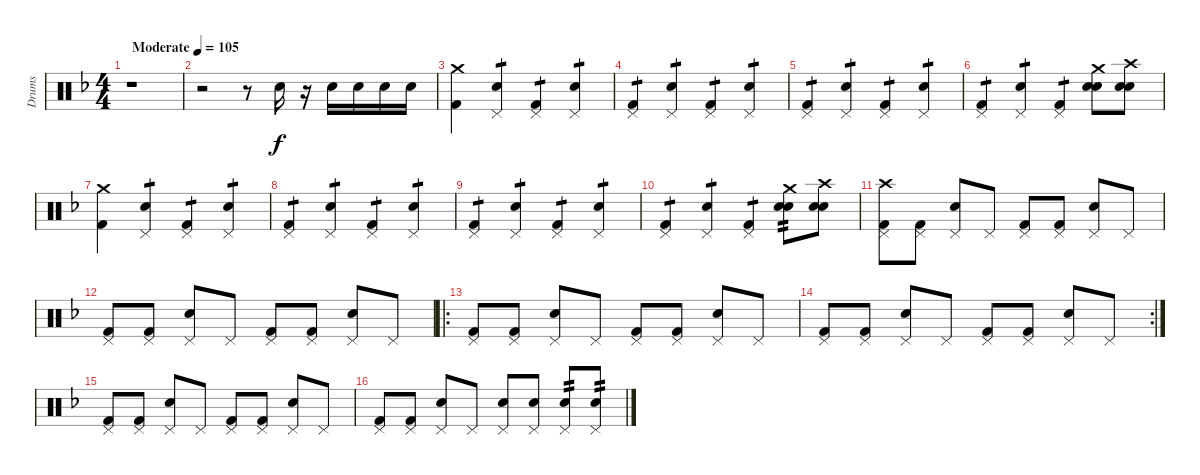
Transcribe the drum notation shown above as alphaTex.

\track ("Drums" "Drums") {instrument percussion}
\staff {score}
\articulation defaults
\ts (4 4)
\tempo (105 "Moderate")
\clef neutral
\ks f
r.1{dy f} |
r.2 r.8 "Snare (hit) 2".16 r.16 "Snare (hit) 2".16 "Snare (hit) 2".16 "Snare (hit) 2".16 "Snare (hit) 2".16 |
("Kick (hit) 2" "Crash medium (hit)").4 ("Snare (hit) 2" "Pedal Hi-Hat (hit)").4{tp 1} ("Kick (hit) 2" "Pedal Hi-Hat (hit)").4{tp 1} ("Snare (hit) 2" "Pedal Hi-Hat (hit)").4{tp 1} |
("Kick (hit) 2" "Pedal Hi-Hat (hit)").4{tp 1} ("Snare (hit) 2" "Pedal Hi-Hat (hit)").4{tp 1} ("Kick (hit) 2" "Pedal Hi-Hat (hit)").4{tp 1} ("Snare (hit) 2" "Pedal Hi-Hat (hit)").4{tp 1} |
("Kick (hit) 2" "Pedal Hi-Hat (hit)").4{tp 1} ("Snare (hit) 2" "Pedal Hi-Hat (hit)").4{tp 1} ("Kick (hit) 2" "Pedal Hi-Hat (hit)").4{tp 1} ("Snare (hit) 2" "Pedal Hi-Hat (hit)").4{tp 1} |
("Kick (hit) 2" "Pedal Hi-Hat (hit)").4{tp 1} ("Snare (hit) 2" "Pedal Hi-Hat (hit)").4{tp 1} ("Kick (hit) 2" "Pedal Hi-Hat (hit)").4{tp 1} ("Snare (hit) 2" "Snare (hit) 2" "Crash medium (hit)").8 ("Snare (hit) 2" "Snare (hit) 2" "Crash high (hit)").8 |
("Kick (hit) 2" "Crash medium (hit)").4 ("Snare (hit) 2" "Pedal Hi-Hat (hit)").4{tp 1} ("Kick (hit) 2" "Pedal Hi-Hat (hit)").4{tp 1} ("Snare (hit) 2" "Pedal Hi-Hat (hit)").4{tp 1} |
("Kick (hit) 2" "Pedal Hi-Hat (hit)").4{tp 1} ("Snare (hit) 2" "Pedal Hi-Hat (hit)").4{tp 1} ("Kick (hit) 2" "Pedal Hi-Hat (hit)").4{tp 1} ("Snare (hit) 2" "Pedal Hi-Hat (hit)").4{tp 1} |
("Kick (hit) 2" "Pedal Hi-Hat (hit)").4{tp 1} ("Snare (hit) 2" "Pedal Hi-Hat (hit)").4{tp 1} ("Kick (hit) 2" "Pedal Hi-Hat (hit)").4{tp 1} ("Snare (hit) 2" "Pedal Hi-Hat (hit)").4{tp 1} |
("Kick (hit) 2" "Pedal Hi-Hat (hit)").4{tp 1} ("Snare (hit) 2" "Pedal Hi-Hat (hit)").4{tp 1} ("Kick (hit) 2" "Pedal Hi-Hat (hit)").4{tp 1} ("Snare (hit) 2" "Snare (hit) 2" "Crash medium (hit)").8{tp 2} ("Snare (hit) 2" "Snare (hit) 2" "Crash high (hit)").8 |
("Kick (hit) 2" "Pedal Hi-Hat (hit)" "Crash high (hit)").8 ("Kick (hit) 2" "Pedal Hi-Hat (hit)").8 ("Snare (hit) 2" "Pedal Hi-Hat (hit)").8 "Pedal Hi-Hat (hit)".8 ("Kick (hit) 2" "Pedal Hi-Hat (hit)").8 ("Kick (hit) 2" "Pedal Hi-Hat (hit)").8 ("Snare (hit) 2" "Pedal Hi-Hat (hit)").8 "Pedal Hi-Hat (hit)".8 |
("Kick (hit) 2" "Pedal Hi-Hat (hit)").8 ("Kick (hit) 2" "Pedal Hi-Hat (hit)").8 ("Snare (hit) 2" "Pedal Hi-Hat (hit)").8 "Pedal Hi-Hat (hit)".8 ("Kick (hit) 2" "Pedal Hi-Hat (hit)").8 ("Kick (hit) 2" "Pedal Hi-Hat (hit)").8 ("Snare (hit) 2" "Pedal Hi-Hat (hit)").8 "Pedal Hi-Hat (hit)".8 |
\ro
("Kick (hit) 2" "Pedal Hi-Hat (hit)").8 ("Kick (hit) 2" "Pedal Hi-Hat (hit)").8 ("Snare (hit) 2" "Pedal Hi-Hat (hit)").8 "Pedal Hi-Hat (hit)".8 ("Kick (hit) 2" "Pedal Hi-Hat (hit)").8 ("Kick (hit) 2" "Pedal Hi-Hat (hit)").8 ("Snare (hit) 2" "Pedal Hi-Hat (hit)").8 "Pedal Hi-Hat (hit)".8 |
\rc 2
("Kick (hit) 2" "Pedal Hi-Hat (hit)").8 ("Kick (hit) 2" "Pedal Hi-Hat (hit)").8 ("Snare (hit) 2" "Pedal Hi-Hat (hit)").8 "Pedal Hi-Hat (hit)".8 ("Kick (hit) 2" "Pedal Hi-Hat (hit)").8 ("Kick (hit) 2" "Pedal Hi-Hat (hit)").8 ("Snare (hit) 2" "Pedal Hi-Hat (hit)").8 "Pedal Hi-Hat (hit)".8 |
("Kick (hit) 2" "Pedal Hi-Hat (hit)").8 ("Kick (hit) 2" "Pedal Hi-Hat (hit)").8 ("Snare (hit) 2" "Pedal Hi-Hat (hit)").8 "Pedal Hi-Hat (hit)".8 ("Kick (hit) 2" "Pedal Hi-Hat (hit)").8 ("Kick (hit) 2" "Pedal Hi-Hat (hit)").8 ("Snare (hit) 2" "Pedal Hi-Hat (hit)").8 "Pedal Hi-Hat (hit)".8 |
("Kick (hit) 2" "Pedal Hi-Hat (hit)").8 ("Kick (hit) 2" "Pedal Hi-Hat (hit)").8 ("Snare (hit) 2" "Pedal Hi-Hat (hit)").8 "Pedal Hi-Hat (hit)".8 ("Snare (hit) 2" "Pedal Hi-Hat (hit)").8 ("Snare (hit) 2" "Pedal Hi-Hat (hit)").8 ("Snare (hit) 2" "Pedal Hi-Hat (hit)").8{tp 2} ("Snare (hit) 2" "Pedal Hi-Hat (hit)").8{tp 2}
